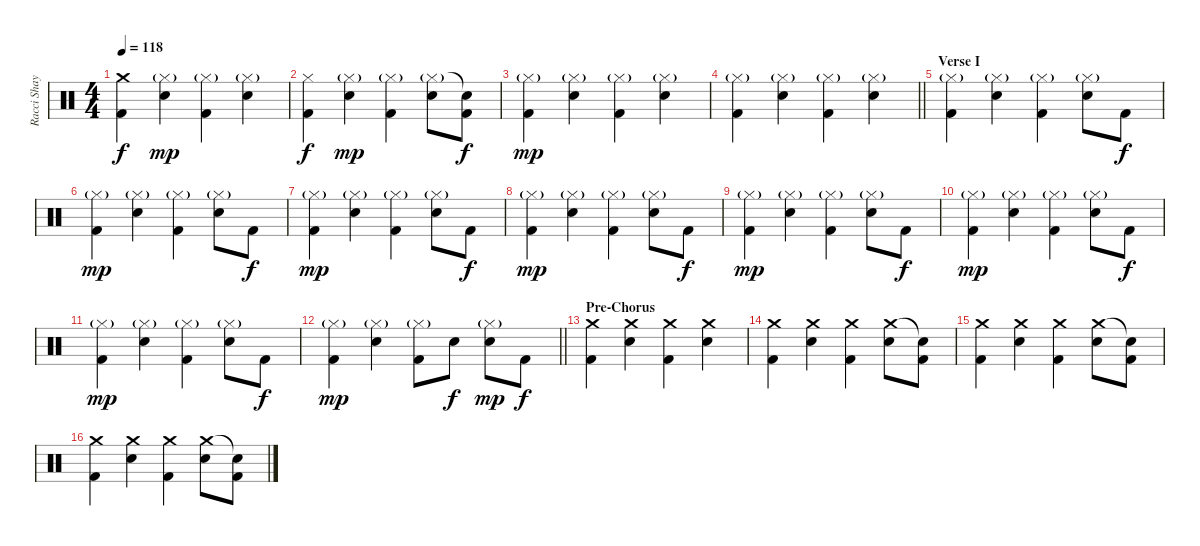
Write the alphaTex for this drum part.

\track ("Racci Shay" "Racci Shay") {instrument percussion}
\staff {score}
\articulation defaults
\ts (4 4)
\tempo 118
\clef neutral
\ks c
("Crash medium (hit)" "Kick (hit) 2").4{dy f} ("Hi-Hat (closed)"{g} "Electric Snare (hit)").4{dy mp} ("Hi-Hat (closed)"{g} "Kick (hit) 2").4 ("Hi-Hat (closed)"{g} "Electric Snare (hit)").4 |
("Hi-Hat (closed)" "Kick (hit) 2").4{dy f} ("Hi-Hat (closed)"{g} "Electric Snare (hit)").4{dy mp} ("Hi-Hat (closed)"{g} "Kick (hit) 2").4 ("Hi-Hat (closed)"{g} "Electric Snare (hit)").8 ("Snare (hit)"{t} "Kick (hit) 2").8{dy f} |
("Hi-Hat (closed)"{g} "Kick (hit) 2").4{dy mp} ("Hi-Hat (closed)"{g} "Electric Snare (hit)").4 ("Hi-Hat (closed)"{g} "Kick (hit) 2").4 ("Hi-Hat (closed)"{g} "Electric Snare (hit)").4 |
\barLineRight lightlight
("Hi-Hat (closed)"{g} "Kick (hit) 2").4 ("Hi-Hat (closed)"{g} "Electric Snare (hit)").4 ("Hi-Hat (closed)"{g} "Kick (hit) 2").4 ("Hi-Hat (closed)"{g} "Electric Snare (hit)").4 |
\section ("" "Verse I")
("Hi-Hat (closed)"{g} "Kick (hit) 2").4 ("Hi-Hat (closed)"{g} "Electric Snare (hit)").4 ("Hi-Hat (closed)"{g} "Kick (hit) 2").4 ("Hi-Hat (closed)"{g} "Electric Snare (hit)").8 "Kick (hit) 2".8{dy f} |
("Hi-Hat (closed)"{g} "Kick (hit) 2").4{dy mp} ("Hi-Hat (closed)"{g} "Electric Snare (hit)").4 ("Hi-Hat (closed)"{g} "Kick (hit) 2").4 ("Hi-Hat (closed)"{g} "Electric Snare (hit)").8 "Kick (hit) 2".8{dy f} |
("Hi-Hat (closed)"{g} "Kick (hit) 2").4{dy mp} ("Hi-Hat (closed)"{g} "Electric Snare (hit)").4 ("Hi-Hat (closed)"{g} "Kick (hit) 2").4 ("Hi-Hat (closed)"{g} "Electric Snare (hit)").8 "Kick (hit) 2".8{dy f} |
("Hi-Hat (closed)"{g} "Kick (hit) 2").4{dy mp} ("Hi-Hat (closed)"{g} "Electric Snare (hit)").4 ("Hi-Hat (closed)"{g} "Kick (hit) 2").4 ("Hi-Hat (closed)"{g} "Electric Snare (hit)").8 "Kick (hit) 2".8{dy f} |
("Hi-Hat (closed)"{g} "Kick (hit) 2").4{dy mp} ("Hi-Hat (closed)"{g} "Electric Snare (hit)").4 ("Hi-Hat (closed)"{g} "Kick (hit) 2").4 ("Hi-Hat (closed)"{g} "Electric Snare (hit)").8 "Kick (hit) 2".8{dy f} |
("Hi-Hat (closed)"{g} "Kick (hit) 2").4{dy mp} ("Hi-Hat (closed)"{g} "Electric Snare (hit)").4 ("Hi-Hat (closed)"{g} "Kick (hit) 2").4 ("Hi-Hat (closed)"{g} "Electric Snare (hit)").8 "Kick (hit) 2".8{dy f} |
("Hi-Hat (closed)"{g} "Kick (hit) 2").4{dy mp} ("Hi-Hat (closed)"{g} "Electric Snare (hit)").4 ("Hi-Hat (closed)"{g} "Kick (hit) 2").4 ("Hi-Hat (closed)"{g} "Electric Snare (hit)").8 "Kick (hit) 2".8{dy f} |
\barLineRight lightlight
("Hi-Hat (closed)"{g} "Kick (hit) 2").4{dy mp} ("Hi-Hat (closed)"{g} "Electric Snare (hit)").4 ("Hi-Hat (closed)"{g} "Kick (hit) 2").8 "Electric Snare (hit)".8{dy f} ("Hi-Hat (closed)"{g} "Electric Snare (hit)").8{dy mp} "Kick (hit) 2".8{dy f} |
\section ("" "Pre-Chorus")
("Crash medium (hit)" "Kick (hit) 2").4 ("Crash medium (hit)" "Electric Snare (hit)").4 ("Crash medium (hit)" "Kick (hit) 2").4 ("Crash medium (hit)" "Electric Snare (hit)").4 |
("Crash medium (hit)" "Kick (hit) 2").4 ("Crash medium (hit)" "Electric Snare (hit)").4 ("Crash medium (hit)" "Kick (hit) 2").4 ("Crash medium (hit)" "Electric Snare (hit)").8 ("Snare (hit)"{t} "Kick (hit) 2").8 |
("Crash medium (hit)" "Kick (hit) 2").4 ("Crash medium (hit)" "Electric Snare (hit)").4 ("Crash medium (hit)" "Kick (hit) 2").4 ("Crash medium (hit)" "Electric Snare (hit)").8 ("Snare (hit)"{t} "Kick (hit) 2").8 |
("Crash medium (hit)" "Kick (hit) 2").4 ("Crash medium (hit)" "Electric Snare (hit)").4 ("Crash medium (hit)" "Kick (hit) 2").4 ("Crash medium (hit)" "Electric Snare (hit)").8 ("Snare (hit)"{t} "Kick (hit) 2").8
